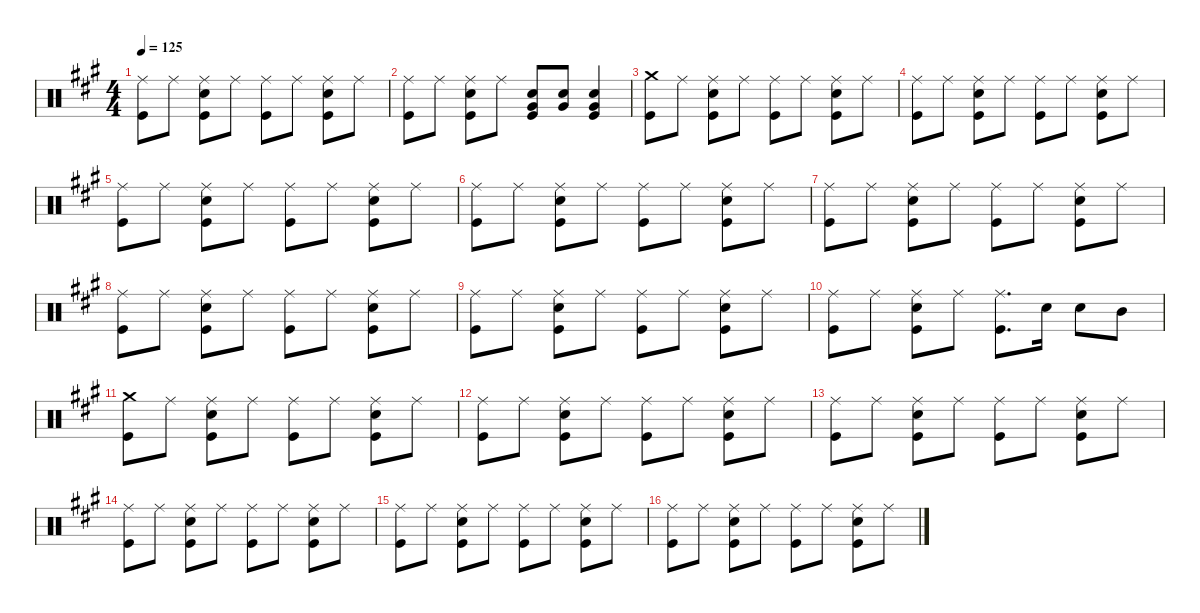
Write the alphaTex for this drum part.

\defaultSystemsLayout 4
\hideDynamics
\bracketExtendMode nobrackets
\singleTrackTrackNamePolicy hidden
\multiTrackTrackNamePolicy hidden
\otherSystemsTrackNameOrientation horizontal
\track ("Drums" "drm.") {instrument percussion}
\staff {score}
\articulation defaults
\ts (4 4)
\tempo 125
\clef neutral
\ks a
("Ride (middle)"{acc forcenatural} "Kick (hit)"{acc forcenatural}).8{dy f beam Down} "Ride (middle)"{acc forcenatural}.8{beam Down} ("Ride (middle)"{acc forcenatural} "Snare (hit) 2"{acc forcenatural} "Kick (hit)"{acc forcenatural}).8{beam Down} "Ride (middle)"{acc forcenatural}.8{beam Down} ("Ride (middle)"{acc forcenatural} "Kick (hit)"{acc forcenatural}).8{beam Down} "Ride (middle)"{acc forcenatural}.8{beam Down} ("Ride (middle)"{acc forcenatural} "Snare (hit) 2"{acc forcenatural} "Kick (hit)"{acc forcenatural}).8{beam Down} "Ride (middle)"{acc forcenatural}.8{beam Down} |
("Ride (middle)"{acc forcenatural} "Kick (hit)"{acc forcenatural}).8{beam Down} "Ride (middle)"{acc forcenatural}.8{beam Down} ("Ride (middle)"{acc forcenatural} "Snare (hit) 2"{acc forcenatural} "Kick (hit)"{acc forcenatural}).8{beam Down} "Ride (middle)"{acc forcenatural}.8{beam Down} ("Very Low Tom (hit)"{acc forcenatural} "Snare (hit) 2"{acc forcenatural} "Kick (hit)"{acc forcenatural}).8{beam Up} ("Very Low Tom (hit)"{acc forcenatural} "Snare (hit) 2"{acc forcenatural}).8{beam Up} ("Very Low Tom (hit)"{acc forcenatural} "Snare (hit) 2"{acc forcenatural} "Kick (hit)"{acc forcenatural}).4{beam Up} |
("Crash medium (hit)"{acc forcenatural} "Kick (hit)"{acc forcenatural}).8{beam Down} "Ride (middle)"{acc forcenatural}.8{beam Down} ("Ride (middle)"{acc forcenatural} "Snare (hit) 2"{acc forcenatural} "Kick (hit)"{acc forcenatural}).8{beam Down} "Ride (middle)"{acc forcenatural}.8{beam Down} ("Ride (middle)"{acc forcenatural} "Kick (hit)"{acc forcenatural}).8{beam Down} "Ride (middle)"{acc forcenatural}.8{beam Down} ("Ride (middle)"{acc forcenatural} "Snare (hit) 2"{acc forcenatural} "Kick (hit)"{acc forcenatural}).8{beam Down} "Ride (middle)"{acc forcenatural}.8{beam Down} |
("Ride (middle)"{acc forcenatural} "Kick (hit)"{acc forcenatural}).8{beam Down} "Ride (middle)"{acc forcenatural}.8{beam Down} ("Ride (middle)"{acc forcenatural} "Snare (hit) 2"{acc forcenatural} "Kick (hit)"{acc forcenatural}).8{beam Down} "Ride (middle)"{acc forcenatural}.8{beam Down} ("Ride (middle)"{acc forcenatural} "Kick (hit)"{acc forcenatural}).8{beam Down} "Ride (middle)"{acc forcenatural}.8{beam Down} ("Ride (middle)"{acc forcenatural} "Snare (hit) 2"{acc forcenatural} "Kick (hit)"{acc forcenatural}).8{beam Down} "Ride (middle)"{acc forcenatural}.8{beam Down} |
("Ride (middle)"{acc forcenatural} "Kick (hit)"{acc forcenatural}).8{beam Down} "Ride (middle)"{acc forcenatural}.8{beam Down} ("Ride (middle)"{acc forcenatural} "Snare (hit) 2"{acc forcenatural} "Kick (hit)"{acc forcenatural}).8{beam Down} "Ride (middle)"{acc forcenatural}.8{beam Down} ("Ride (middle)"{acc forcenatural} "Kick (hit)"{acc forcenatural}).8{beam Down} "Ride (middle)"{acc forcenatural}.8{beam Down} ("Ride (middle)"{acc forcenatural} "Snare (hit) 2"{acc forcenatural} "Kick (hit)"{acc forcenatural}).8{beam Down} "Ride (middle)"{acc forcenatural}.8{beam Down} |
("Ride (middle)"{acc forcenatural} "Kick (hit)"{acc forcenatural}).8{beam Down} "Ride (middle)"{acc forcenatural}.8{beam Down} ("Ride (middle)"{acc forcenatural} "Snare (hit) 2"{acc forcenatural} "Kick (hit)"{acc forcenatural}).8{beam Down} "Ride (middle)"{acc forcenatural}.8{beam Down} ("Ride (middle)"{acc forcenatural} "Kick (hit)"{acc forcenatural}).8{beam Down} "Ride (middle)"{acc forcenatural}.8{beam Down} ("Ride (middle)"{acc forcenatural} "Snare (hit) 2"{acc forcenatural} "Kick (hit)"{acc forcenatural}).8{beam Down} "Ride (middle)"{acc forcenatural}.8{beam Down} |
("Ride (middle)"{acc forcenatural} "Kick (hit)"{acc forcenatural}).8{beam Down} "Ride (middle)"{acc forcenatural}.8{beam Down} ("Ride (middle)"{acc forcenatural} "Snare (hit) 2"{acc forcenatural} "Kick (hit)"{acc forcenatural}).8{beam Down} "Ride (middle)"{acc forcenatural}.8{beam Down} ("Ride (middle)"{acc forcenatural} "Kick (hit)"{acc forcenatural}).8{beam Down} "Ride (middle)"{acc forcenatural}.8{beam Down} ("Ride (middle)"{acc forcenatural} "Snare (hit) 2"{acc forcenatural} "Kick (hit)"{acc forcenatural}).8{beam Down} "Ride (middle)"{acc forcenatural}.8{beam Down} |
("Ride (middle)"{acc forcenatural} "Kick (hit)"{acc forcenatural}).8{beam Down} "Ride (middle)"{acc forcenatural}.8{beam Down} ("Ride (middle)"{acc forcenatural} "Snare (hit) 2"{acc forcenatural} "Kick (hit)"{acc forcenatural}).8{beam Down} "Ride (middle)"{acc forcenatural}.8{beam Down} ("Ride (middle)"{acc forcenatural} "Kick (hit)"{acc forcenatural}).8{beam Down} "Ride (middle)"{acc forcenatural}.8{beam Down} ("Ride (middle)"{acc forcenatural} "Snare (hit) 2"{acc forcenatural} "Kick (hit)"{acc forcenatural}).8{beam Down} "Ride (middle)"{acc forcenatural}.8{beam Down} |
("Ride (middle)"{acc forcenatural} "Kick (hit)"{acc forcenatural}).8{beam Down} "Ride (middle)"{acc forcenatural}.8{beam Down} ("Ride (middle)"{acc forcenatural} "Snare (hit) 2"{acc forcenatural} "Kick (hit)"{acc forcenatural}).8{beam Down} "Ride (middle)"{acc forcenatural}.8{beam Down} ("Ride (middle)"{acc forcenatural} "Kick (hit)"{acc forcenatural}).8{beam Down} "Ride (middle)"{acc forcenatural}.8{beam Down} ("Ride (middle)"{acc forcenatural} "Snare (hit) 2"{acc forcenatural} "Kick (hit)"{acc forcenatural}).8{beam Down} "Ride (middle)"{acc forcenatural}.8{beam Down} |
("Ride (middle)"{acc forcenatural} "Kick (hit)"{acc forcenatural}).8{beam Down} "Ride (middle)"{acc forcenatural}.8{beam Down} ("Ride (middle)"{acc forcenatural} "Snare (hit) 2"{acc forcenatural} "Kick (hit)"{acc forcenatural}).8{beam Down} "Ride (middle)"{acc forcenatural}.8{beam Down} ("Ride (middle)"{acc forcenatural} "Kick (hit)"{acc forcenatural}).8{d beam Down} "Snare (hit) 2"{acc forcenatural}.16{beam Down} "Snare (hit) 2"{acc forcenatural}.8{beam Down} "Mid Tom (hit)"{acc forcenatural}.8{beam Down} |
("Crash medium (hit)"{acc forcenatural} "Kick (hit)"{acc forcenatural}).8{beam Down} "Ride (middle)"{acc forcenatural}.8{beam Down} ("Ride (middle)"{acc forcenatural} "Snare (hit) 2"{acc forcenatural} "Kick (hit)"{acc forcenatural}).8{beam Down} "Ride (middle)"{acc forcenatural}.8{beam Down} ("Ride (middle)"{acc forcenatural} "Kick (hit)"{acc forcenatural}).8{beam Down} "Ride (middle)"{acc forcenatural}.8{beam Down} ("Ride (middle)"{acc forcenatural} "Snare (hit) 2"{acc forcenatural} "Kick (hit)"{acc forcenatural}).8{beam Down} "Ride (middle)"{acc forcenatural}.8{beam Down} |
("Ride (middle)"{acc forcenatural} "Kick (hit)"{acc forcenatural}).8{beam Down} "Ride (middle)"{acc forcenatural}.8{beam Down} ("Ride (middle)"{acc forcenatural} "Snare (hit) 2"{acc forcenatural} "Kick (hit)"{acc forcenatural}).8{beam Down} "Ride (middle)"{acc forcenatural}.8{beam Down} ("Ride (middle)"{acc forcenatural} "Kick (hit)"{acc forcenatural}).8{beam Down} "Ride (middle)"{acc forcenatural}.8{beam Down} ("Ride (middle)"{acc forcenatural} "Snare (hit) 2"{acc forcenatural} "Kick (hit)"{acc forcenatural}).8{beam Down} "Ride (middle)"{acc forcenatural}.8{beam Down} |
("Ride (middle)"{acc forcenatural} "Kick (hit)"{acc forcenatural}).8{beam Down} "Ride (middle)"{acc forcenatural}.8{beam Down} ("Ride (middle)"{acc forcenatural} "Snare (hit) 2"{acc forcenatural} "Kick (hit)"{acc forcenatural}).8{beam Down} "Ride (middle)"{acc forcenatural}.8{beam Down} ("Ride (middle)"{acc forcenatural} "Kick (hit)"{acc forcenatural}).8{beam Down} "Ride (middle)"{acc forcenatural}.8{beam Down} ("Ride (middle)"{acc forcenatural} "Snare (hit) 2"{acc forcenatural} "Kick (hit)"{acc forcenatural}).8{beam Down} "Ride (middle)"{acc forcenatural}.8{beam Down} |
("Ride (middle)"{acc forcenatural} "Kick (hit)"{acc forcenatural}).8{beam Down} "Ride (middle)"{acc forcenatural}.8{beam Down} ("Ride (middle)"{acc forcenatural} "Snare (hit) 2"{acc forcenatural} "Kick (hit)"{acc forcenatural}).8{beam Down} "Ride (middle)"{acc forcenatural}.8{beam Down} ("Ride (middle)"{acc forcenatural} "Kick (hit)"{acc forcenatural}).8{beam Down} "Ride (middle)"{acc forcenatural}.8{beam Down} ("Ride (middle)"{acc forcenatural} "Snare (hit) 2"{acc forcenatural} "Kick (hit)"{acc forcenatural}).8{beam Down} "Ride (middle)"{acc forcenatural}.8{beam Down} |
("Ride (middle)"{acc forcenatural} "Kick (hit)"{acc forcenatural}).8{beam Down} "Ride (middle)"{acc forcenatural}.8{beam Down} ("Ride (middle)"{acc forcenatural} "Snare (hit) 2"{acc forcenatural} "Kick (hit)"{acc forcenatural}).8{beam Down} "Ride (middle)"{acc forcenatural}.8{beam Down} ("Ride (middle)"{acc forcenatural} "Kick (hit)"{acc forcenatural}).8{beam Down} "Ride (middle)"{acc forcenatural}.8{beam Down} ("Ride (middle)"{acc forcenatural} "Snare (hit) 2"{acc forcenatural} "Kick (hit)"{acc forcenatural}).8{beam Down} "Ride (middle)"{acc forcenatural}.8{beam Down} |
("Ride (middle)"{acc forcenatural} "Kick (hit)"{acc forcenatural}).8{beam Down} "Ride (middle)"{acc forcenatural}.8{beam Down} ("Ride (middle)"{acc forcenatural} "Snare (hit) 2"{acc forcenatural} "Kick (hit)"{acc forcenatural}).8{beam Down} "Ride (middle)"{acc forcenatural}.8{beam Down} ("Ride (middle)"{acc forcenatural} "Kick (hit)"{acc forcenatural}).8{beam Down} "Ride (middle)"{acc forcenatural}.8{beam Down} ("Ride (middle)"{acc forcenatural} "Snare (hit) 2"{acc forcenatural} "Kick (hit)"{acc forcenatural}).8{beam Down} "Ride (middle)"{acc forcenatural}.8{beam Down}
